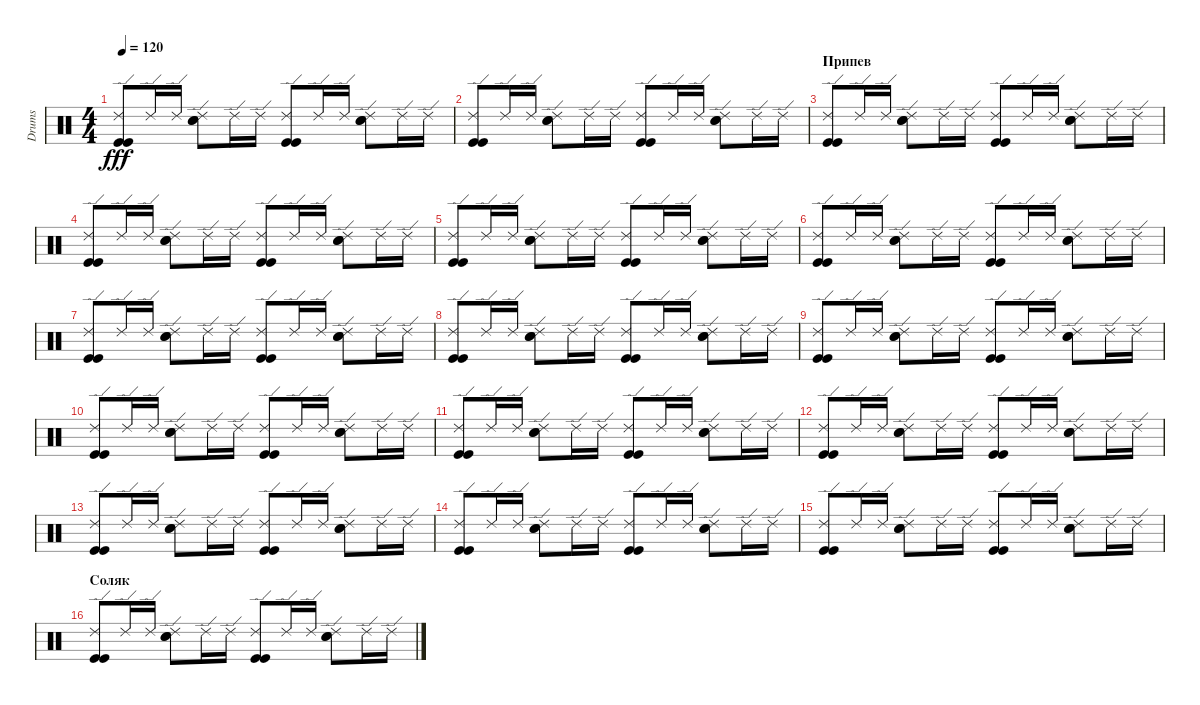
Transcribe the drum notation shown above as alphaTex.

\track ("Drums" "Drums") {instrument percussion}
\staff {score}
\articulation defaults
\ts (4 4)
\tempo 120
\clef neutral
\ks c
("Ride (edge) 2" "Kick (hit)" "Kick (hit)").8{dy fff} "Ride (edge) 2".16 "Ride (edge) 2".16 ("Ride (edge) 2" "Electric Snare (hit)" "Electric Snare (hit)").8 "Ride (edge) 2".16 "Ride (edge) 2".16 ("Ride (edge) 2" "Kick (hit)" "Kick (hit)").8 "Ride (edge) 2".16 "Ride (edge) 2".16 ("Ride (edge) 2" "Electric Snare (hit)" "Electric Snare (hit)").8 "Ride (edge) 2".16 "Ride (edge) 2".16 |
("Ride (edge) 2" "Kick (hit)" "Kick (hit)").8 "Ride (edge) 2".16 "Ride (edge) 2".16 ("Ride (edge) 2" "Electric Snare (hit)" "Electric Snare (hit)").8 "Ride (edge) 2".16 "Ride (edge) 2".16 ("Ride (edge) 2" "Kick (hit)" "Kick (hit)").8 "Ride (edge) 2".16 "Ride (edge) 2".16 ("Ride (edge) 2" "Electric Snare (hit)" "Electric Snare (hit)").8 "Ride (edge) 2".16 "Ride (edge) 2".16 |
\section ("" "Припев")
("Ride (edge) 2" "Kick (hit)" "Kick (hit)").8 "Ride (edge) 2".16 "Ride (edge) 2".16 ("Ride (edge) 2" "Electric Snare (hit)" "Electric Snare (hit)").8 "Ride (edge) 2".16 "Ride (edge) 2".16 ("Ride (edge) 2" "Kick (hit)" "Kick (hit)").8 "Ride (edge) 2".16 "Ride (edge) 2".16 ("Ride (edge) 2" "Electric Snare (hit)" "Electric Snare (hit)").8 "Ride (edge) 2".16 "Ride (edge) 2".16 |
("Ride (edge) 2" "Kick (hit)" "Kick (hit)").8 "Ride (edge) 2".16 "Ride (edge) 2".16 ("Ride (edge) 2" "Electric Snare (hit)" "Electric Snare (hit)").8 "Ride (edge) 2".16 "Ride (edge) 2".16 ("Ride (edge) 2" "Kick (hit)" "Kick (hit)").8 "Ride (edge) 2".16 "Ride (edge) 2".16 ("Ride (edge) 2" "Electric Snare (hit)" "Electric Snare (hit)").8 "Ride (edge) 2".16 "Ride (edge) 2".16 |
("Ride (edge) 2" "Kick (hit)" "Kick (hit)").8 "Ride (edge) 2".16 "Ride (edge) 2".16 ("Ride (edge) 2" "Electric Snare (hit)" "Electric Snare (hit)").8 "Ride (edge) 2".16 "Ride (edge) 2".16 ("Ride (edge) 2" "Kick (hit)" "Kick (hit)").8 "Ride (edge) 2".16 "Ride (edge) 2".16 ("Ride (edge) 2" "Electric Snare (hit)" "Electric Snare (hit)").8 "Ride (edge) 2".16 "Ride (edge) 2".16 |
("Ride (edge) 2" "Kick (hit)" "Kick (hit)").8 "Ride (edge) 2".16 "Ride (edge) 2".16 ("Ride (edge) 2" "Electric Snare (hit)" "Electric Snare (hit)").8 "Ride (edge) 2".16 "Ride (edge) 2".16 ("Ride (edge) 2" "Kick (hit)" "Kick (hit)").8 "Ride (edge) 2".16 "Ride (edge) 2".16 ("Ride (edge) 2" "Electric Snare (hit)" "Electric Snare (hit)").8 "Ride (edge) 2".16 "Ride (edge) 2".16 |
("Ride (edge) 2" "Kick (hit)" "Kick (hit)").8 "Ride (edge) 2".16 "Ride (edge) 2".16 ("Ride (edge) 2" "Electric Snare (hit)" "Electric Snare (hit)").8 "Ride (edge) 2".16 "Ride (edge) 2".16 ("Ride (edge) 2" "Kick (hit)" "Kick (hit)").8 "Ride (edge) 2".16 "Ride (edge) 2".16 ("Ride (edge) 2" "Electric Snare (hit)" "Electric Snare (hit)").8 "Ride (edge) 2".16 "Ride (edge) 2".16 |
("Ride (edge) 2" "Kick (hit)" "Kick (hit)").8 "Ride (edge) 2".16 "Ride (edge) 2".16 ("Ride (edge) 2" "Electric Snare (hit)" "Electric Snare (hit)").8 "Ride (edge) 2".16 "Ride (edge) 2".16 ("Ride (edge) 2" "Kick (hit)" "Kick (hit)").8 "Ride (edge) 2".16 "Ride (edge) 2".16 ("Ride (edge) 2" "Electric Snare (hit)" "Electric Snare (hit)").8 "Ride (edge) 2".16 "Ride (edge) 2".16 |
("Ride (edge) 2" "Kick (hit)" "Kick (hit)").8 "Ride (edge) 2".16 "Ride (edge) 2".16 ("Ride (edge) 2" "Electric Snare (hit)" "Electric Snare (hit)").8 "Ride (edge) 2".16 "Ride (edge) 2".16 ("Ride (edge) 2" "Kick (hit)" "Kick (hit)").8 "Ride (edge) 2".16 "Ride (edge) 2".16 ("Ride (edge) 2" "Electric Snare (hit)" "Electric Snare (hit)").8 "Ride (edge) 2".16 "Ride (edge) 2".16 |
("Ride (edge) 2" "Kick (hit)" "Kick (hit)").8 "Ride (edge) 2".16 "Ride (edge) 2".16 ("Ride (edge) 2" "Electric Snare (hit)" "Electric Snare (hit)").8 "Ride (edge) 2".16 "Ride (edge) 2".16 ("Ride (edge) 2" "Kick (hit)" "Kick (hit)").8 "Ride (edge) 2".16 "Ride (edge) 2".16 ("Ride (edge) 2" "Electric Snare (hit)" "Electric Snare (hit)").8 "Ride (edge) 2".16 "Ride (edge) 2".16 |
("Ride (edge) 2" "Kick (hit)" "Kick (hit)").8 "Ride (edge) 2".16 "Ride (edge) 2".16 ("Ride (edge) 2" "Electric Snare (hit)" "Electric Snare (hit)").8 "Ride (edge) 2".16 "Ride (edge) 2".16 ("Ride (edge) 2" "Kick (hit)" "Kick (hit)").8 "Ride (edge) 2".16 "Ride (edge) 2".16 ("Ride (edge) 2" "Electric Snare (hit)" "Electric Snare (hit)").8 "Ride (edge) 2".16 "Ride (edge) 2".16 |
("Ride (edge) 2" "Kick (hit)" "Kick (hit)").8 "Ride (edge) 2".16 "Ride (edge) 2".16 ("Ride (edge) 2" "Electric Snare (hit)" "Electric Snare (hit)").8 "Ride (edge) 2".16 "Ride (edge) 2".16 ("Ride (edge) 2" "Kick (hit)" "Kick (hit)").8 "Ride (edge) 2".16 "Ride (edge) 2".16 ("Ride (edge) 2" "Electric Snare (hit)" "Electric Snare (hit)").8 "Ride (edge) 2".16 "Ride (edge) 2".16 |
("Ride (edge) 2" "Kick (hit)" "Kick (hit)").8 "Ride (edge) 2".16 "Ride (edge) 2".16 ("Ride (edge) 2" "Electric Snare (hit)" "Electric Snare (hit)").8 "Ride (edge) 2".16 "Ride (edge) 2".16 ("Ride (edge) 2" "Kick (hit)" "Kick (hit)").8 "Ride (edge) 2".16 "Ride (edge) 2".16 ("Ride (edge) 2" "Electric Snare (hit)" "Electric Snare (hit)").8 "Ride (edge) 2".16 "Ride (edge) 2".16 |
("Ride (edge) 2" "Kick (hit)" "Kick (hit)").8 "Ride (edge) 2".16 "Ride (edge) 2".16 ("Ride (edge) 2" "Electric Snare (hit)" "Electric Snare (hit)").8 "Ride (edge) 2".16 "Ride (edge) 2".16 ("Ride (edge) 2" "Kick (hit)" "Kick (hit)").8 "Ride (edge) 2".16 "Ride (edge) 2".16 ("Ride (edge) 2" "Electric Snare (hit)" "Electric Snare (hit)").8 "Ride (edge) 2".16 "Ride (edge) 2".16 |
("Ride (edge) 2" "Kick (hit)" "Kick (hit)").8 "Ride (edge) 2".16 "Ride (edge) 2".16 ("Ride (edge) 2" "Electric Snare (hit)" "Electric Snare (hit)").8 "Ride (edge) 2".16 "Ride (edge) 2".16 ("Ride (edge) 2" "Kick (hit)" "Kick (hit)").8 "Ride (edge) 2".16 "Ride (edge) 2".16 ("Ride (edge) 2" "Electric Snare (hit)" "Electric Snare (hit)").8 "Ride (edge) 2".16 "Ride (edge) 2".16 |
\section ("" "Соляк")
("Ride (edge) 2" "Kick (hit)" "Kick (hit)").8 "Ride (edge) 2".16 "Ride (edge) 2".16 ("Ride (edge) 2" "Electric Snare (hit)" "Electric Snare (hit)").8 "Ride (edge) 2".16 "Ride (edge) 2".16 ("Ride (edge) 2" "Kick (hit)" "Kick (hit)").8 "Ride (edge) 2".16 "Ride (edge) 2".16 ("Ride (edge) 2" "Electric Snare (hit)" "Electric Snare (hit)").8 "Ride (edge) 2".16 "Ride (edge) 2".16
